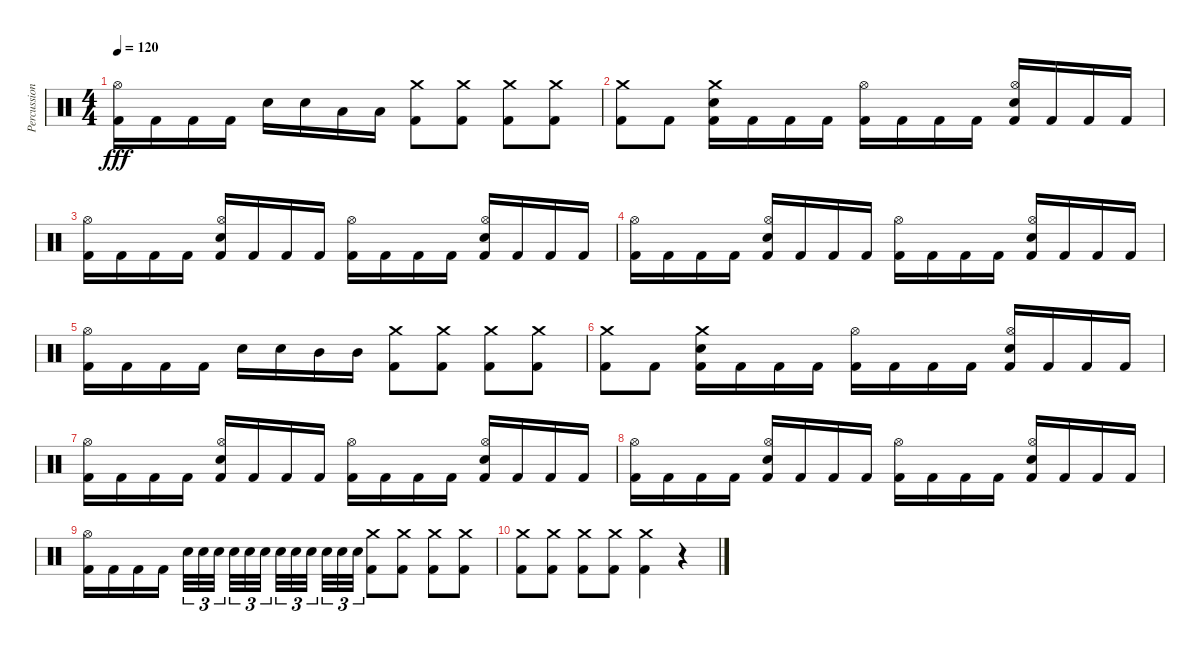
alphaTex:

\track ("Percussion" "Percussion") {instrument percussion}
\staff {score}
\articulation defaults
\ts (4 4)
\tempo 120
\clef neutral
\ks c
("Kick (hit) 2" "Hi-Hat (open)").16{dy fff} "Kick (hit) 2".16 "Kick (hit) 2".16 "Kick (hit) 2".16 "Electric Snare (hit)".16 "Electric Snare (hit)".16 "Low Tom (hit)".16 "Low Tom (hit)".16 ("Kick (hit) 2" "Crash medium (hit)").8 ("Kick (hit) 2" "Crash medium (hit)").8 ("Kick (hit) 2" "Crash medium (hit)").8 ("Kick (hit) 2" "Crash medium (hit)").8 |
("Kick (hit) 2" "Crash medium (hit)").8 "Kick (hit) 2".8 ("Kick (hit) 2" "Electric Snare (hit)" "Crash medium (hit)").16 "Kick (hit) 2".16 "Kick (hit) 2".16 "Kick (hit) 2".16 ("Kick (hit) 2" "Hi-Hat (open)").16 "Kick (hit) 2".16 "Kick (hit) 2".16 "Kick (hit) 2".16 ("Kick (hit) 2" "Electric Snare (hit)" "Hi-Hat (open)").16 "Kick (hit) 2".16 "Kick (hit) 2".16 "Kick (hit) 2".16 |
("Kick (hit) 2" "Hi-Hat (open)").16 "Kick (hit) 2".16 "Kick (hit) 2".16 "Kick (hit) 2".16 ("Kick (hit) 2" "Electric Snare (hit)" "Hi-Hat (open)").16 "Kick (hit) 2".16 "Kick (hit) 2".16 "Kick (hit) 2".16 ("Kick (hit) 2" "Hi-Hat (open)").16 "Kick (hit) 2".16 "Kick (hit) 2".16 "Kick (hit) 2".16 ("Kick (hit) 2" "Electric Snare (hit)" "Hi-Hat (open)").16 "Kick (hit) 2".16 "Kick (hit) 2".16 "Kick (hit) 2".16 |
("Kick (hit) 2" "Hi-Hat (open)").16 "Kick (hit) 2".16 "Kick (hit) 2".16 "Kick (hit) 2".16 ("Kick (hit) 2" "Electric Snare (hit)" "Hi-Hat (open)").16 "Kick (hit) 2".16 "Kick (hit) 2".16 "Kick (hit) 2".16 ("Kick (hit) 2" "Hi-Hat (open)").16 "Kick (hit) 2".16 "Kick (hit) 2".16 "Kick (hit) 2".16 ("Kick (hit) 2" "Electric Snare (hit)" "Hi-Hat (open)").16 "Kick (hit) 2".16 "Kick (hit) 2".16 "Kick (hit) 2".16 |
("Kick (hit) 2" "Hi-Hat (open)").16 "Kick (hit) 2".16 "Kick (hit) 2".16 "Kick (hit) 2".16 "Electric Snare (hit)".16 "Electric Snare (hit)".16 "Mid Tom (hit)".16 "Mid Tom (hit)".16 ("Kick (hit) 2" "Crash medium (hit)").8 ("Kick (hit) 2" "Crash medium (hit)").8 ("Kick (hit) 2" "Crash medium (hit)").8 ("Kick (hit) 2" "Crash medium (hit)").8 |
("Kick (hit) 2" "Crash medium (hit)").8 "Kick (hit) 2".8 ("Kick (hit) 2" "Electric Snare (hit)" "Crash medium (hit)").16 "Kick (hit) 2".16 "Kick (hit) 2".16 "Kick (hit) 2".16 ("Kick (hit) 2" "Hi-Hat (open)").16 "Kick (hit) 2".16 "Kick (hit) 2".16 "Kick (hit) 2".16 ("Kick (hit) 2" "Electric Snare (hit)" "Hi-Hat (open)").16 "Kick (hit) 2".16 "Kick (hit) 2".16 "Kick (hit) 2".16 |
("Kick (hit) 2" "Hi-Hat (open)").16 "Kick (hit) 2".16 "Kick (hit) 2".16 "Kick (hit) 2".16 ("Kick (hit) 2" "Electric Snare (hit)" "Hi-Hat (open)").16 "Kick (hit) 2".16 "Kick (hit) 2".16 "Kick (hit) 2".16 ("Kick (hit) 2" "Hi-Hat (open)").16 "Kick (hit) 2".16 "Kick (hit) 2".16 "Kick (hit) 2".16 ("Kick (hit) 2" "Electric Snare (hit)" "Hi-Hat (open)").16 "Kick (hit) 2".16 "Kick (hit) 2".16 "Kick (hit) 2".16 |
("Kick (hit) 2" "Hi-Hat (open)").16 "Kick (hit) 2".16 "Kick (hit) 2".16 "Kick (hit) 2".16 ("Kick (hit) 2" "Electric Snare (hit)" "Hi-Hat (open)").16 "Kick (hit) 2".16 "Kick (hit) 2".16 "Kick (hit) 2".16 ("Kick (hit) 2" "Hi-Hat (open)").16 "Kick (hit) 2".16 "Kick (hit) 2".16 "Kick (hit) 2".16 ("Kick (hit) 2" "Electric Snare (hit)" "Hi-Hat (open)").16 "Kick (hit) 2".16 "Kick (hit) 2".16 "Kick (hit) 2".16 |
("Kick (hit) 2" "Hi-Hat (open)").16 "Kick (hit) 2".16 "Kick (hit) 2".16 "Kick (hit) 2".16 "Electric Snare (hit)".32{tu (3 2)} "Electric Snare (hit)".32{tu (3 2)} "Electric Snare (hit)".32{tu (3 2)} "Electric Snare (hit)".32{tu (3 2)} "Electric Snare (hit)".32{tu (3 2)} "Electric Snare (hit)".32{tu (3 2)} "Electric Snare (hit)".32{tu (3 2)} "Electric Snare (hit)".32{tu (3 2)} "Electric Snare (hit)".32{tu (3 2)} "Electric Snare (hit)".32{tu (3 2)} "Electric Snare (hit)".32{tu (3 2)} "Electric Snare (hit)".32{tu (3 2)} ("Kick (hit) 2" "Crash medium (hit)").8 ("Kick (hit) 2" "Crash medium (hit)").8 ("Kick (hit) 2" "Crash medium (hit)").8 ("Kick (hit) 2" "Crash medium (hit)").8 |
("Kick (hit) 2" "Crash medium (hit)").8 ("Kick (hit) 2" "Crash medium (hit)").8 ("Kick (hit) 2" "Crash medium (hit)").8 ("Kick (hit) 2" "Crash medium (hit)").8 ("Kick (hit) 2" "Crash medium (hit)").4 r.4
